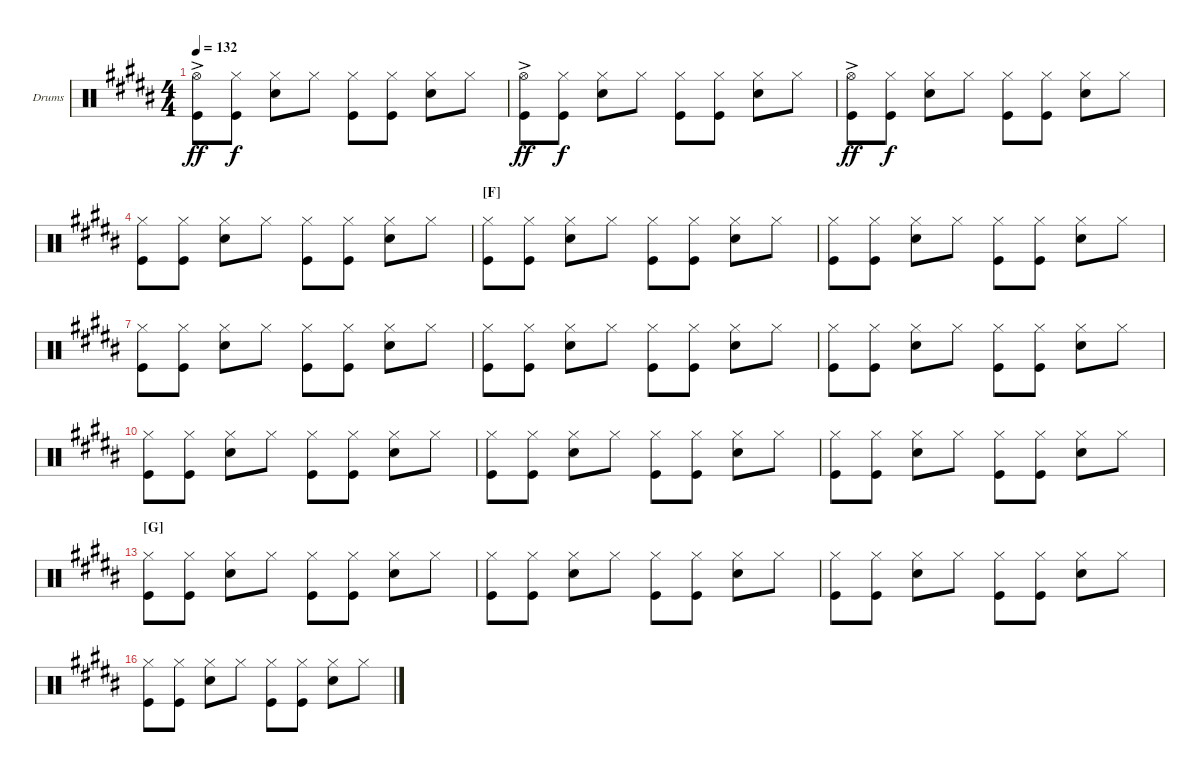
\bracketExtendMode nobrackets
\firstSystemTrackNameOrientation horizontal
\otherSystemsTrackNameOrientation horizontal
\defaultBarNumberDisplay FirstOfSystem
\track ("Drumkit" "Drums") {instrument percussion}
\staff {score}
\articulation defaults
\ts (4 4)
\tempo 132
\clef neutral
\ks b
("Hi-Hat (open)"{ac} "Kick (hit)"{ac}).8{dy ff} ("Hi-Hat (closed)" "Kick (hit)").8{dy f} ("Hi-Hat (closed)" "Snare (hit) 2").8 "Hi-Hat (closed)".8 ("Hi-Hat (closed)" "Kick (hit)").8 ("Hi-Hat (closed)" "Kick (hit)").8 ("Hi-Hat (closed)" "Snare (hit) 2").8 "Hi-Hat (closed)".8 |
("Hi-Hat (open)"{ac} "Kick (hit)"{ac}).8{dy ff} ("Hi-Hat (closed)" "Kick (hit)").8{dy f} ("Hi-Hat (closed)" "Snare (hit) 2").8 "Hi-Hat (closed)".8 ("Hi-Hat (closed)" "Kick (hit)").8 ("Hi-Hat (closed)" "Kick (hit)").8 ("Hi-Hat (closed)" "Snare (hit) 2").8 "Hi-Hat (closed)".8 |
("Hi-Hat (open)"{ac} "Kick (hit)"{ac}).8{dy ff} ("Hi-Hat (closed)" "Kick (hit)").8{dy f} ("Hi-Hat (closed)" "Snare (hit) 2").8 "Hi-Hat (closed)".8 ("Hi-Hat (closed)" "Kick (hit)").8 ("Hi-Hat (closed)" "Kick (hit)").8 ("Hi-Hat (closed)" "Snare (hit) 2").8 "Hi-Hat (closed)".8 |
("Hi-Hat (closed)" "Kick (hit)").8 ("Hi-Hat (closed)" "Kick (hit)").8 ("Hi-Hat (closed)" "Snare (hit) 2").8 "Hi-Hat (closed)".8 ("Hi-Hat (closed)" "Kick (hit)").8 ("Hi-Hat (closed)" "Kick (hit)").8 ("Hi-Hat (closed)" "Snare (hit) 2").8 "Hi-Hat (closed)".8 |
\section ("F" "")
("Hi-Hat (closed)" "Kick (hit)").8 ("Hi-Hat (closed)" "Kick (hit)").8 ("Hi-Hat (closed)" "Snare (hit) 2").8 "Hi-Hat (closed)".8 ("Hi-Hat (closed)" "Kick (hit)").8 ("Hi-Hat (closed)" "Kick (hit)").8 ("Hi-Hat (closed)" "Snare (hit) 2").8 "Hi-Hat (closed)".8 |
("Hi-Hat (closed)" "Kick (hit)").8 ("Hi-Hat (closed)" "Kick (hit)").8 ("Hi-Hat (closed)" "Snare (hit) 2").8 "Hi-Hat (closed)".8 ("Hi-Hat (closed)" "Kick (hit)").8 ("Hi-Hat (closed)" "Kick (hit)").8 ("Hi-Hat (closed)" "Snare (hit) 2").8 "Hi-Hat (closed)".8 |
("Hi-Hat (closed)" "Kick (hit)").8 ("Hi-Hat (closed)" "Kick (hit)").8 ("Hi-Hat (closed)" "Snare (hit) 2").8 "Hi-Hat (closed)".8 ("Hi-Hat (closed)" "Kick (hit)").8 ("Hi-Hat (closed)" "Kick (hit)").8 ("Hi-Hat (closed)" "Snare (hit) 2").8 "Hi-Hat (closed)".8 |
("Hi-Hat (closed)" "Kick (hit)").8 ("Hi-Hat (closed)" "Kick (hit)").8 ("Hi-Hat (closed)" "Snare (hit) 2").8 "Hi-Hat (closed)".8 ("Hi-Hat (closed)" "Kick (hit)").8 ("Hi-Hat (closed)" "Kick (hit)").8 ("Hi-Hat (closed)" "Snare (hit) 2").8 "Hi-Hat (closed)".8 |
("Hi-Hat (closed)" "Kick (hit)").8 ("Hi-Hat (closed)" "Kick (hit)").8 ("Hi-Hat (closed)" "Snare (hit) 2").8 "Hi-Hat (closed)".8 ("Hi-Hat (closed)" "Kick (hit)").8 ("Hi-Hat (closed)" "Kick (hit)").8 ("Hi-Hat (closed)" "Snare (hit) 2").8 "Hi-Hat (closed)".8 |
("Hi-Hat (closed)" "Kick (hit)").8 ("Hi-Hat (closed)" "Kick (hit)").8 ("Hi-Hat (closed)" "Snare (hit) 2").8 "Hi-Hat (closed)".8 ("Hi-Hat (closed)" "Kick (hit)").8 ("Hi-Hat (closed)" "Kick (hit)").8 ("Hi-Hat (closed)" "Snare (hit) 2").8 "Hi-Hat (closed)".8 |
("Hi-Hat (closed)" "Kick (hit)").8 ("Hi-Hat (closed)" "Kick (hit)").8 ("Hi-Hat (closed)" "Snare (hit) 2").8 "Hi-Hat (closed)".8 ("Hi-Hat (closed)" "Kick (hit)").8 ("Hi-Hat (closed)" "Kick (hit)").8 ("Hi-Hat (closed)" "Snare (hit) 2").8 "Hi-Hat (closed)".8 |
("Hi-Hat (closed)" "Kick (hit)").8 ("Hi-Hat (closed)" "Kick (hit)").8 ("Hi-Hat (closed)" "Snare (hit) 2").8 "Hi-Hat (closed)".8 ("Hi-Hat (closed)" "Kick (hit)").8 ("Hi-Hat (closed)" "Kick (hit)").8 ("Hi-Hat (closed)" "Snare (hit) 2").8 "Hi-Hat (closed)".8 |
\section ("G" "")
("Hi-Hat (closed)" "Kick (hit)").8 ("Hi-Hat (closed)" "Kick (hit)").8 ("Hi-Hat (closed)" "Snare (hit) 2").8 "Hi-Hat (closed)".8 ("Hi-Hat (closed)" "Kick (hit)").8 ("Hi-Hat (closed)" "Kick (hit)").8 ("Hi-Hat (closed)" "Snare (hit) 2").8 "Hi-Hat (closed)".8 |
("Hi-Hat (closed)" "Kick (hit)").8 ("Hi-Hat (closed)" "Kick (hit)").8 ("Hi-Hat (closed)" "Snare (hit) 2").8 "Hi-Hat (closed)".8 ("Hi-Hat (closed)" "Kick (hit)").8 ("Hi-Hat (closed)" "Kick (hit)").8 ("Hi-Hat (closed)" "Snare (hit) 2").8 "Hi-Hat (closed)".8 |
("Hi-Hat (closed)" "Kick (hit)").8 ("Hi-Hat (closed)" "Kick (hit)").8 ("Hi-Hat (closed)" "Snare (hit) 2").8 "Hi-Hat (closed)".8 ("Hi-Hat (closed)" "Kick (hit)").8 ("Hi-Hat (closed)" "Kick (hit)").8 ("Hi-Hat (closed)" "Snare (hit) 2").8 "Hi-Hat (closed)".8 |
("Hi-Hat (closed)" "Kick (hit)").8 ("Hi-Hat (closed)" "Kick (hit)").8 ("Hi-Hat (closed)" "Snare (hit) 2").8 "Hi-Hat (closed)".8 ("Hi-Hat (closed)" "Kick (hit)").8 ("Hi-Hat (closed)" "Kick (hit)").8 ("Hi-Hat (closed)" "Snare (hit) 2").8 "Hi-Hat (closed)".8
